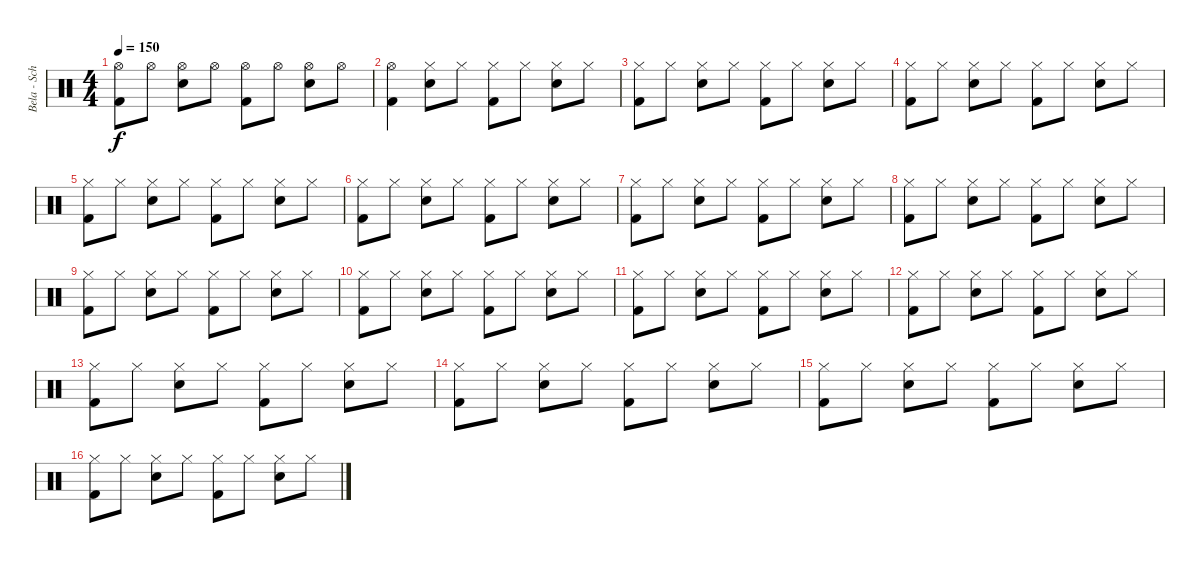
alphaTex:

\track ("Bela - Schlagzeug" "Bela - Sch") {instrument percussion}
\staff {score}
\articulation defaults
\ts (4 4)
\tempo 150
\clef neutral
\ks c
("Hi-Hat (open)" "Kick (hit) 2").8{dy f} "Hi-Hat (open)".8 ("Hi-Hat (open)" "Snare (hit) 2").8 "Hi-Hat (open)".8 ("Hi-Hat (open)" "Kick (hit) 2").8 "Hi-Hat (open)".8 ("Hi-Hat (open)" "Snare (hit) 2").8 "Hi-Hat (open)".8 |
("Hi-Hat (open)" "Kick (hit) 2").4 ("Hi-Hat (closed)" "Snare (hit) 2").8 "Hi-Hat (closed)".8 ("Hi-Hat (closed)" "Kick (hit) 2").8 "Hi-Hat (closed)".8 ("Hi-Hat (closed)" "Snare (hit) 2").8 "Hi-Hat (closed)".8 |
("Hi-Hat (closed)" "Kick (hit) 2").8 "Hi-Hat (closed)".8 ("Hi-Hat (closed)" "Snare (hit) 2").8 "Hi-Hat (closed)".8 ("Hi-Hat (closed)" "Kick (hit) 2").8 "Hi-Hat (closed)".8 ("Hi-Hat (closed)" "Snare (hit) 2").8 "Hi-Hat (closed)".8 |
("Hi-Hat (closed)" "Kick (hit) 2").8 "Hi-Hat (closed)".8 ("Hi-Hat (closed)" "Snare (hit) 2").8 "Hi-Hat (closed)".8 ("Hi-Hat (closed)" "Kick (hit) 2").8 "Hi-Hat (closed)".8 ("Hi-Hat (closed)" "Snare (hit) 2").8 "Hi-Hat (closed)".8 |
("Hi-Hat (closed)" "Kick (hit) 2").8 "Hi-Hat (closed)".8 ("Hi-Hat (closed)" "Snare (hit) 2").8 "Hi-Hat (closed)".8 ("Hi-Hat (closed)" "Kick (hit) 2").8 "Hi-Hat (closed)".8 ("Hi-Hat (closed)" "Snare (hit) 2").8 "Hi-Hat (closed)".8 |
("Hi-Hat (closed)" "Kick (hit) 2").8 "Hi-Hat (closed)".8 ("Hi-Hat (closed)" "Snare (hit) 2").8 "Hi-Hat (closed)".8 ("Hi-Hat (closed)" "Kick (hit) 2").8 "Hi-Hat (closed)".8 ("Hi-Hat (closed)" "Snare (hit) 2").8 "Hi-Hat (closed)".8 |
("Hi-Hat (closed)" "Kick (hit) 2").8 "Hi-Hat (closed)".8 ("Hi-Hat (closed)" "Snare (hit) 2").8 "Hi-Hat (closed)".8 ("Hi-Hat (closed)" "Kick (hit) 2").8 "Hi-Hat (closed)".8 ("Hi-Hat (closed)" "Snare (hit) 2").8 "Hi-Hat (closed)".8 |
("Hi-Hat (closed)" "Kick (hit) 2").8 "Hi-Hat (closed)".8 ("Hi-Hat (closed)" "Snare (hit) 2").8 "Hi-Hat (closed)".8 ("Hi-Hat (closed)" "Kick (hit) 2").8 "Hi-Hat (closed)".8 ("Hi-Hat (closed)" "Snare (hit) 2").8 "Hi-Hat (closed)".8 |
("Hi-Hat (closed)" "Kick (hit) 2").8 "Hi-Hat (closed)".8 ("Hi-Hat (closed)" "Snare (hit) 2").8 "Hi-Hat (closed)".8 ("Hi-Hat (closed)" "Kick (hit) 2").8 "Hi-Hat (closed)".8 ("Hi-Hat (closed)" "Snare (hit) 2").8 "Hi-Hat (closed)".8 |
("Hi-Hat (closed)" "Kick (hit) 2").8 "Hi-Hat (closed)".8 ("Hi-Hat (closed)" "Snare (hit) 2").8 "Hi-Hat (closed)".8 ("Hi-Hat (closed)" "Kick (hit) 2").8 "Hi-Hat (closed)".8 ("Hi-Hat (closed)" "Snare (hit) 2").8 "Hi-Hat (closed)".8 |
("Hi-Hat (closed)" "Kick (hit) 2").8 "Hi-Hat (closed)".8 ("Hi-Hat (closed)" "Snare (hit) 2").8 "Hi-Hat (closed)".8 ("Hi-Hat (closed)" "Kick (hit) 2").8 "Hi-Hat (closed)".8 ("Hi-Hat (closed)" "Snare (hit) 2").8 "Hi-Hat (closed)".8 |
("Hi-Hat (closed)" "Kick (hit) 2").8 "Hi-Hat (closed)".8 ("Hi-Hat (closed)" "Snare (hit) 2").8 "Hi-Hat (closed)".8 ("Hi-Hat (closed)" "Kick (hit) 2").8 "Hi-Hat (closed)".8 ("Hi-Hat (closed)" "Snare (hit) 2").8 "Hi-Hat (closed)".8 |
("Hi-Hat (closed)" "Kick (hit) 2").8 "Hi-Hat (closed)".8 ("Hi-Hat (closed)" "Snare (hit) 2").8 "Hi-Hat (closed)".8 ("Hi-Hat (closed)" "Kick (hit) 2").8 "Hi-Hat (closed)".8 ("Hi-Hat (closed)" "Snare (hit) 2").8 "Hi-Hat (closed)".8 |
("Hi-Hat (closed)" "Kick (hit) 2").8 "Hi-Hat (closed)".8 ("Hi-Hat (closed)" "Snare (hit) 2").8 "Hi-Hat (closed)".8 ("Hi-Hat (closed)" "Kick (hit) 2").8 "Hi-Hat (closed)".8 ("Hi-Hat (closed)" "Snare (hit) 2").8 "Hi-Hat (closed)".8 |
("Hi-Hat (closed)" "Kick (hit) 2").8 "Hi-Hat (closed)".8 ("Hi-Hat (closed)" "Snare (hit) 2").8 "Hi-Hat (closed)".8 ("Hi-Hat (closed)" "Kick (hit) 2").8 "Hi-Hat (closed)".8 ("Hi-Hat (closed)" "Snare (hit) 2").8 "Hi-Hat (closed)".8 |
("Hi-Hat (closed)" "Kick (hit) 2").8 "Hi-Hat (closed)".8 ("Hi-Hat (closed)" "Snare (hit) 2").8 "Hi-Hat (closed)".8 ("Hi-Hat (closed)" "Kick (hit) 2").8 "Hi-Hat (closed)".8 ("Hi-Hat (closed)" "Snare (hit) 2").8 "Hi-Hat (closed)".8
